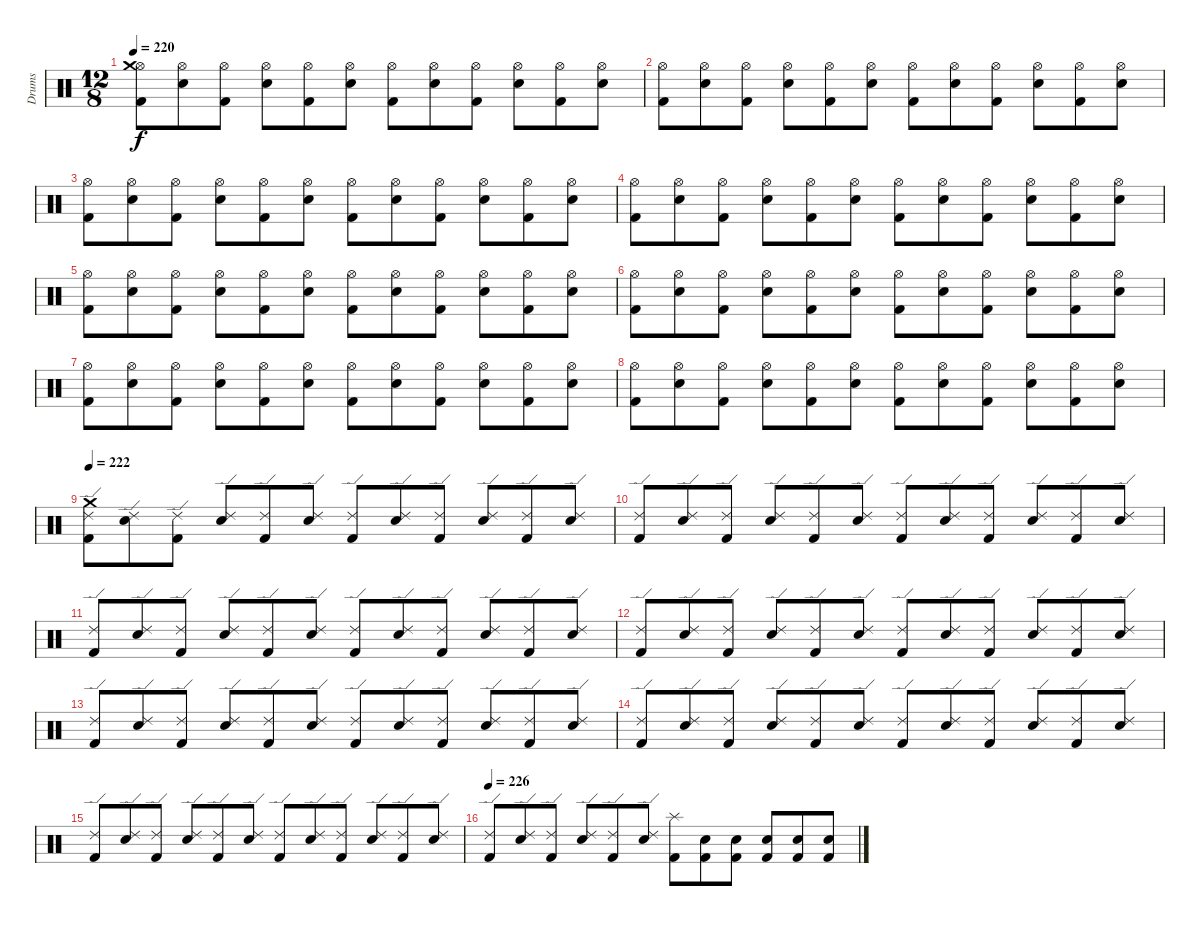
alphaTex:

\track ("Drums" "Drums") {instrument percussion}
\staff {score}
\articulation defaults
\ts (12 8)
\tempo 220
\clef neutral
\ks c
("Hi-Hat (open)" "Crash medium (hit)" "Kick (hit) 2").8{dy f} ("Hi-Hat (open)" "Snare (hit) 2").8 ("Hi-Hat (open)" "Kick (hit) 2").8 ("Hi-Hat (open)" "Snare (hit) 2").8 ("Hi-Hat (open)" "Kick (hit) 2").8 ("Hi-Hat (open)" "Snare (hit) 2").8 ("Hi-Hat (open)" "Kick (hit) 2").8 ("Hi-Hat (open)" "Snare (hit) 2").8 ("Hi-Hat (open)" "Kick (hit) 2").8 ("Hi-Hat (open)" "Snare (hit) 2").8 ("Hi-Hat (open)" "Kick (hit) 2").8 ("Hi-Hat (open)" "Snare (hit) 2").8 |
("Hi-Hat (open)" "Kick (hit) 2").8 ("Hi-Hat (open)" "Snare (hit) 2").8 ("Hi-Hat (open)" "Kick (hit) 2").8 ("Hi-Hat (open)" "Snare (hit) 2").8 ("Hi-Hat (open)" "Kick (hit) 2").8 ("Hi-Hat (open)" "Snare (hit) 2").8 ("Hi-Hat (open)" "Kick (hit) 2").8 ("Hi-Hat (open)" "Snare (hit) 2").8 ("Hi-Hat (open)" "Kick (hit) 2").8 ("Hi-Hat (open)" "Snare (hit) 2").8 ("Hi-Hat (open)" "Kick (hit) 2").8 ("Hi-Hat (open)" "Snare (hit) 2").8 |
("Hi-Hat (open)" "Kick (hit) 2").8 ("Hi-Hat (open)" "Snare (hit) 2").8 ("Hi-Hat (open)" "Kick (hit) 2").8 ("Hi-Hat (open)" "Snare (hit) 2").8 ("Hi-Hat (open)" "Kick (hit) 2").8 ("Hi-Hat (open)" "Snare (hit) 2").8 ("Hi-Hat (open)" "Kick (hit) 2").8 ("Hi-Hat (open)" "Snare (hit) 2").8 ("Hi-Hat (open)" "Kick (hit) 2").8 ("Hi-Hat (open)" "Snare (hit) 2").8 ("Hi-Hat (open)" "Kick (hit) 2").8 ("Hi-Hat (open)" "Snare (hit) 2").8 |
("Hi-Hat (open)" "Kick (hit) 2").8 ("Hi-Hat (open)" "Snare (hit) 2").8 ("Hi-Hat (open)" "Kick (hit) 2").8 ("Hi-Hat (open)" "Snare (hit) 2").8 ("Hi-Hat (open)" "Kick (hit) 2").8 ("Hi-Hat (open)" "Snare (hit) 2").8 ("Hi-Hat (open)" "Kick (hit) 2").8 ("Hi-Hat (open)" "Snare (hit) 2").8 ("Hi-Hat (open)" "Kick (hit) 2").8 ("Hi-Hat (open)" "Snare (hit) 2").8 ("Hi-Hat (open)" "Kick (hit) 2").8 ("Hi-Hat (open)" "Snare (hit) 2").8 |
("Hi-Hat (open)" "Kick (hit) 2").8 ("Hi-Hat (open)" "Snare (hit) 2").8 ("Hi-Hat (open)" "Kick (hit) 2").8 ("Hi-Hat (open)" "Snare (hit) 2").8 ("Hi-Hat (open)" "Kick (hit) 2").8 ("Hi-Hat (open)" "Snare (hit) 2").8 ("Hi-Hat (open)" "Kick (hit) 2").8 ("Hi-Hat (open)" "Snare (hit) 2").8 ("Hi-Hat (open)" "Kick (hit) 2").8 ("Hi-Hat (open)" "Snare (hit) 2").8 ("Hi-Hat (open)" "Kick (hit) 2").8 ("Hi-Hat (open)" "Snare (hit) 2").8 |
("Hi-Hat (open)" "Kick (hit) 2").8 ("Hi-Hat (open)" "Snare (hit) 2").8 ("Hi-Hat (open)" "Kick (hit) 2").8 ("Hi-Hat (open)" "Snare (hit) 2").8 ("Hi-Hat (open)" "Kick (hit) 2").8 ("Hi-Hat (open)" "Snare (hit) 2").8 ("Hi-Hat (open)" "Kick (hit) 2").8 ("Hi-Hat (open)" "Snare (hit) 2").8 ("Hi-Hat (open)" "Kick (hit) 2").8 ("Hi-Hat (open)" "Snare (hit) 2").8 ("Hi-Hat (open)" "Kick (hit) 2").8 ("Hi-Hat (open)" "Snare (hit) 2").8 |
("Hi-Hat (open)" "Kick (hit) 2").8 ("Hi-Hat (open)" "Snare (hit) 2").8 ("Hi-Hat (open)" "Kick (hit) 2").8 ("Hi-Hat (open)" "Snare (hit) 2").8 ("Hi-Hat (open)" "Kick (hit) 2").8 ("Hi-Hat (open)" "Snare (hit) 2").8 ("Hi-Hat (open)" "Kick (hit) 2").8 ("Hi-Hat (open)" "Snare (hit) 2").8 ("Hi-Hat (open)" "Kick (hit) 2").8 ("Hi-Hat (open)" "Snare (hit) 2").8 ("Hi-Hat (open)" "Kick (hit) 2").8 ("Hi-Hat (open)" "Snare (hit) 2").8 |
("Hi-Hat (open)" "Kick (hit) 2").8 ("Hi-Hat (open)" "Snare (hit) 2").8 ("Hi-Hat (open)" "Kick (hit) 2").8 ("Hi-Hat (open)" "Snare (hit) 2").8 ("Hi-Hat (open)" "Kick (hit) 2").8 ("Hi-Hat (open)" "Snare (hit) 2").8 ("Hi-Hat (open)" "Kick (hit) 2").8 ("Hi-Hat (open)" "Snare (hit) 2").8 ("Hi-Hat (open)" "Kick (hit) 2").8 ("Hi-Hat (open)" "Snare (hit) 2").8 ("Hi-Hat (open)" "Kick (hit) 2").8 ("Hi-Hat (open)" "Snare (hit) 2").8 |
\tempo 222
("Ride (edge) 2" "Crash medium (hit)" "Kick (hit) 2").8 ("Ride (edge) 2" "Snare (hit) 2").8 ("Ride (edge) 2" "Kick (hit) 2").8 ("Ride (edge) 2" "Snare (hit) 2").8 ("Ride (edge) 2" "Kick (hit) 2").8 ("Ride (edge) 2" "Snare (hit) 2").8 ("Ride (edge) 2" "Kick (hit) 2").8 ("Ride (edge) 2" "Snare (hit) 2").8 ("Ride (edge) 2" "Kick (hit) 2").8 ("Ride (edge) 2" "Snare (hit) 2").8 ("Ride (edge) 2" "Kick (hit) 2").8 ("Ride (edge) 2" "Snare (hit) 2").8 |
("Ride (edge) 2" "Kick (hit) 2").8 ("Ride (edge) 2" "Snare (hit) 2").8 ("Ride (edge) 2" "Kick (hit) 2").8 ("Ride (edge) 2" "Snare (hit) 2").8 ("Ride (edge) 2" "Kick (hit) 2").8 ("Ride (edge) 2" "Snare (hit) 2").8 ("Ride (edge) 2" "Kick (hit) 2").8 ("Ride (edge) 2" "Snare (hit) 2").8 ("Ride (edge) 2" "Kick (hit) 2").8 ("Ride (edge) 2" "Snare (hit) 2").8 ("Ride (edge) 2" "Kick (hit) 2").8 ("Ride (edge) 2" "Snare (hit) 2").8 |
("Ride (edge) 2" "Kick (hit) 2").8 ("Ride (edge) 2" "Snare (hit) 2").8 ("Ride (edge) 2" "Kick (hit) 2").8 ("Ride (edge) 2" "Snare (hit) 2").8 ("Ride (edge) 2" "Kick (hit) 2").8 ("Ride (edge) 2" "Snare (hit) 2").8 ("Ride (edge) 2" "Kick (hit) 2").8 ("Ride (edge) 2" "Snare (hit) 2").8 ("Ride (edge) 2" "Kick (hit) 2").8 ("Ride (edge) 2" "Snare (hit) 2").8 ("Ride (edge) 2" "Kick (hit) 2").8 ("Ride (edge) 2" "Snare (hit) 2").8 |
("Ride (edge) 2" "Kick (hit) 2").8 ("Ride (edge) 2" "Snare (hit) 2").8 ("Ride (edge) 2" "Kick (hit) 2").8 ("Ride (edge) 2" "Snare (hit) 2").8 ("Ride (edge) 2" "Kick (hit) 2").8 ("Ride (edge) 2" "Snare (hit) 2").8 ("Ride (edge) 2" "Kick (hit) 2").8 ("Ride (edge) 2" "Snare (hit) 2").8 ("Ride (edge) 2" "Kick (hit) 2").8 ("Ride (edge) 2" "Snare (hit) 2").8 ("Ride (edge) 2" "Kick (hit) 2").8 ("Ride (edge) 2" "Snare (hit) 2").8 |
("Ride (edge) 2" "Kick (hit) 2").8 ("Ride (edge) 2" "Snare (hit) 2").8 ("Ride (edge) 2" "Kick (hit) 2").8 ("Ride (edge) 2" "Snare (hit) 2").8 ("Ride (edge) 2" "Kick (hit) 2").8 ("Ride (edge) 2" "Snare (hit) 2").8 ("Ride (edge) 2" "Kick (hit) 2").8 ("Ride (edge) 2" "Snare (hit) 2").8 ("Ride (edge) 2" "Kick (hit) 2").8 ("Ride (edge) 2" "Snare (hit) 2").8 ("Ride (edge) 2" "Kick (hit) 2").8 ("Ride (edge) 2" "Snare (hit) 2").8 |
("Ride (edge) 2" "Kick (hit) 2").8 ("Ride (edge) 2" "Snare (hit) 2").8 ("Ride (edge) 2" "Kick (hit) 2").8 ("Ride (edge) 2" "Snare (hit) 2").8 ("Ride (edge) 2" "Kick (hit) 2").8 ("Ride (edge) 2" "Snare (hit) 2").8 ("Ride (edge) 2" "Kick (hit) 2").8 ("Ride (edge) 2" "Snare (hit) 2").8 ("Ride (edge) 2" "Kick (hit) 2").8 ("Ride (edge) 2" "Snare (hit) 2").8 ("Ride (edge) 2" "Kick (hit) 2").8 ("Ride (edge) 2" "Snare (hit) 2").8 |
("Ride (edge) 2" "Kick (hit) 2").8 ("Ride (edge) 2" "Snare (hit) 2").8 ("Ride (edge) 2" "Kick (hit) 2").8 ("Ride (edge) 2" "Snare (hit) 2").8 ("Ride (edge) 2" "Kick (hit) 2").8 ("Ride (edge) 2" "Snare (hit) 2").8 ("Ride (edge) 2" "Kick (hit) 2").8 ("Ride (edge) 2" "Snare (hit) 2").8 ("Ride (edge) 2" "Kick (hit) 2").8 ("Ride (edge) 2" "Snare (hit) 2").8 ("Ride (edge) 2" "Kick (hit) 2").8 ("Ride (edge) 2" "Snare (hit) 2").8 |
\tempo 226
("Ride (edge) 2" "Kick (hit) 2").8 ("Ride (edge) 2" "Snare (hit) 2").8 ("Ride (edge) 2" "Kick (hit) 2").8 ("Ride (edge) 2" "Snare (hit) 2").8 ("Ride (edge) 2" "Kick (hit) 2").8 ("Ride (edge) 2" "Snare (hit) 2").8 ("Splash (hit)" "Kick (hit) 2").8 ("Snare (hit) 2" "Kick (hit) 2").8 ("Snare (hit) 2" "Kick (hit) 2").8 ("Snare (hit) 2" "Kick (hit) 2").8 ("Snare (hit) 2" "Kick (hit) 2").8 ("Snare (hit) 2" "Kick (hit) 2").8
